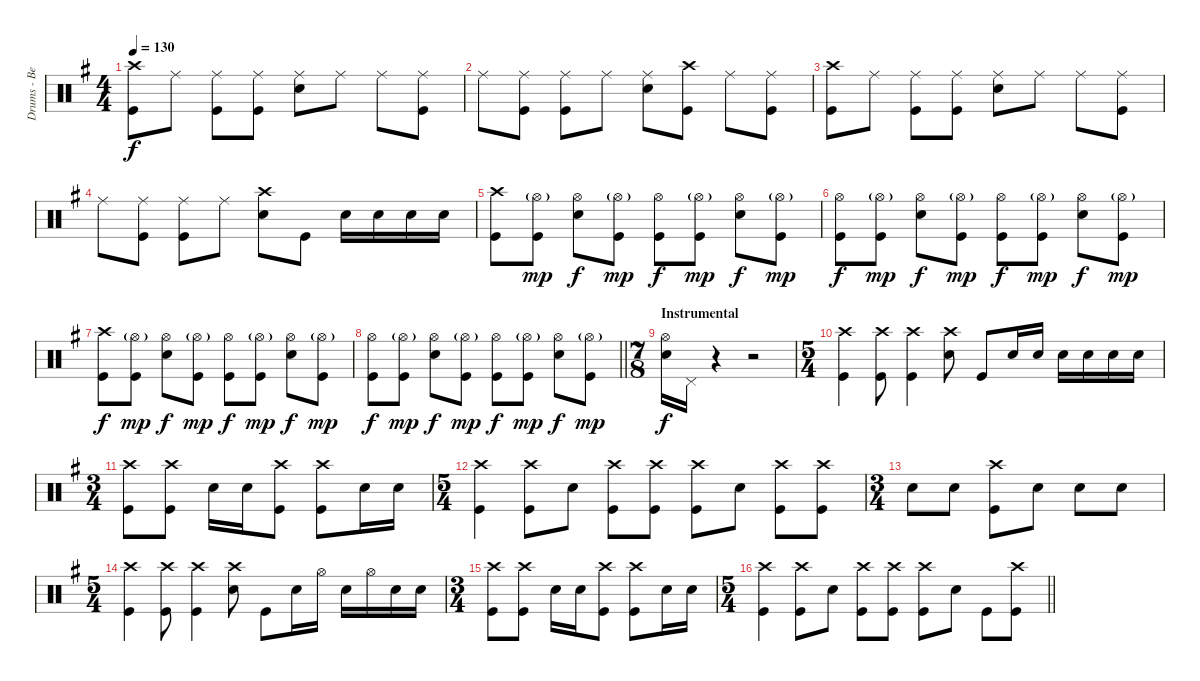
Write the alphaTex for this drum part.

\track ("Drums - Ben Johnston" "Drums - Be") {instrument percussion}
\staff {score}
\articulation defaults
\ts (4 4)
\tempo 130
\clef neutral
\ks eminor
("Crash high (hit)" "Kick (hit)").8{dy f} "Ride (middle)".8 ("Ride (middle)" "Kick (hit)").8 ("Ride (middle)" "Kick (hit)").8 ("Ride (middle)" "Snare (hit) 2").8 "Ride (middle)".8 "Ride (middle)".8 ("Ride (middle)" "Kick (hit)").8 |
"Ride (middle)".8 ("Ride (middle)" "Kick (hit)").8 ("Ride (middle)" "Kick (hit)").8 "Ride (middle)".8 ("Ride (middle)" "Snare (hit) 2").8 ("Crash high (hit)" "Kick (hit)").8 "Ride (middle)".8 ("Ride (middle)" "Kick (hit)").8 |
("Crash high (hit)" "Kick (hit)").8 "Ride (middle)".8 ("Ride (middle)" "Kick (hit)").8 ("Ride (middle)" "Kick (hit)").8 ("Ride (middle)" "Snare (hit) 2").8 "Ride (middle)".8 "Ride (middle)".8 ("Ride (middle)" "Kick (hit)").8 |
"Ride (middle)".8 ("Ride (middle)" "Kick (hit)").8 ("Ride (middle)" "Kick (hit)").8 "Ride (middle)".8 ("Crash high (hit)" "Snare (hit) 2").8 "Kick (hit)".8 "Snare (hit) 2".16 "Snare (hit) 2".16 "Snare (hit) 2".16 "Snare (hit) 2".16 |
("Crash high (hit)" "Kick (hit)").8 ("Hi-Hat (open)"{g} "Kick (hit)").8{dy mp} ("Hi-Hat (open)" "Snare (hit) 2").8{dy f} ("Hi-Hat (open)"{g} "Kick (hit)").8{dy mp} ("Hi-Hat (open)" "Kick (hit)").8{dy f} ("Hi-Hat (open)"{g} "Kick (hit)").8{dy mp} ("Hi-Hat (open)" "Snare (hit) 2").8{dy f} ("Hi-Hat (open)"{g} "Kick (hit)").8{dy mp} |
("Hi-Hat (open)" "Kick (hit)").8{dy f} ("Hi-Hat (open)"{g} "Kick (hit)").8{dy mp} ("Hi-Hat (open)" "Snare (hit) 2").8{dy f} ("Hi-Hat (open)"{g} "Kick (hit)").8{dy mp} ("Hi-Hat (open)" "Kick (hit)").8{dy f} ("Hi-Hat (open)"{g} "Kick (hit)").8{dy mp} ("Hi-Hat (open)" "Snare (hit) 2").8{dy f} ("Hi-Hat (open)"{g} "Kick (hit)").8{dy mp} |
("Crash high (hit)" "Kick (hit)").8{dy f} ("Hi-Hat (open)"{g} "Kick (hit)").8{dy mp} ("Hi-Hat (open)" "Snare (hit) 2").8{dy f} ("Hi-Hat (open)"{g} "Kick (hit)").8{dy mp} ("Hi-Hat (open)" "Kick (hit)").8{dy f} ("Hi-Hat (open)"{g} "Kick (hit)").8{dy mp} ("Hi-Hat (open)" "Snare (hit) 2").8{dy f} ("Hi-Hat (open)"{g} "Kick (hit)").8{dy mp} |
\barLineRight lightlight
("Hi-Hat (open)" "Kick (hit)").8{dy f} ("Hi-Hat (open)"{g} "Kick (hit)").8{dy mp} ("Hi-Hat (open)" "Snare (hit) 2").8{dy f} ("Hi-Hat (open)"{g} "Kick (hit)").8{dy mp} ("Hi-Hat (open)" "Kick (hit)").8{dy f} ("Hi-Hat (open)"{g} "Kick (hit)").8{dy mp} ("Hi-Hat (open)" "Snare (hit) 2").8{dy f} ("Hi-Hat (open)"{g} "Kick (hit)").8{dy mp} |
\ts (7 8)
\section ("" "Instrumental")
("Hi-Hat (open)" "Snare (hit) 2").16{dy f} "Pedal Hi-Hat (hit)".16 r.4 r.2 |
\ts (5 4)
("Crash high (hit)" "Kick (hit)").4{volume 14} ("Crash high (hit)" "Kick (hit)").8 ("Crash high (hit)" "Kick (hit)").4 ("Crash high (hit)" "Snare (hit) 2").8 "Kick (hit)".8 "Snare (hit) 2".16 "Snare (hit) 2".16 "Snare (hit) 2".16 "Snare (hit) 2".16 "Snare (hit) 2".16 "Snare (hit) 2".16 |
\ts (3 4)
("Crash high (hit)" "Kick (hit)").8 ("Crash high (hit)" "Kick (hit)").8 "Snare (hit) 2".16 "Snare (hit) 2".16 ("Crash high (hit)" "Kick (hit)").8 ("Crash high (hit)" "Kick (hit)").8 "Snare (hit) 2".16 "Snare (hit) 2".16 |
\ts (5 4)
("Crash high (hit)" "Kick (hit)").4 ("Crash high (hit)" "Kick (hit)").8 "Snare (hit) 2".8 ("Crash high (hit)" "Kick (hit)").8 ("Crash high (hit)" "Kick (hit)").8 ("Crash high (hit)" "Kick (hit)").8 "Snare (hit) 2".8 ("Crash high (hit)" "Kick (hit)").8 ("Crash high (hit)" "Kick (hit)").8 |
\ts (3 4)
"Snare (hit) 2".8 "Snare (hit) 2".8 ("Crash high (hit)" "Kick (hit)").8 "Snare (hit) 2".8 "Snare (hit) 2".8 "Snare (hit) 2".8 |
\ts (5 4)
("Crash high (hit)" "Kick (hit)").4 ("Crash high (hit)" "Kick (hit)").8 ("Crash high (hit)" "Kick (hit)").4 ("Crash high (hit)" "Snare (hit) 2").8 "Kick (hit)".8 "Snare (hit) 2".16 "Hi-Hat (open)".16 "Snare (hit) 2".16 "Hi-Hat (open)".16 "Snare (hit) 2".16 "Snare (hit) 2".16 |
\ts (3 4)
("Crash high (hit)" "Kick (hit)").8 ("Crash high (hit)" "Kick (hit)").8 "Snare (hit) 2".16 "Snare (hit) 2".16 ("Crash high (hit)" "Kick (hit)").8 ("Crash high (hit)" "Kick (hit)").8 "Snare (hit) 2".16 "Snare (hit) 2".16 |
\ts (5 4)
\barLineRight lightlight
("Crash high (hit)" "Kick (hit)").4 ("Crash high (hit)" "Kick (hit)").8 "Snare (hit) 2".8 ("Crash high (hit)" "Kick (hit)").8 ("Crash high (hit)" "Kick (hit)").8 ("Crash high (hit)" "Kick (hit)").8 "Snare (hit) 2".8 "Kick (hit)".8 ("Crash high (hit)" "Kick (hit)").8
